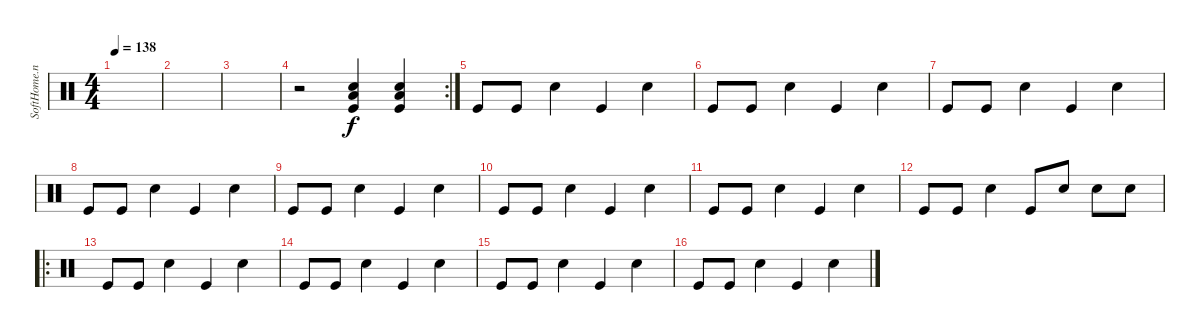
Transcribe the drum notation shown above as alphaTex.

\track ("SoftHome.net" "SoftHome.n") {instrument percussion}
\staff {score}
\articulation defaults
\ts (4 4)
\tempo 138
\clef neutral
\ks c
|
|
|
\rc 2
r.2 ("Low Floor Tom (hit)" "Snare (hit) 2" "Kick (hit)").4 ("Low Floor Tom (hit)" "Snare (hit) 2" "Kick (hit)").4 |
"Kick (hit)".8 "Kick (hit)".8 "Snare (hit) 2".4 "Kick (hit)".4 "Snare (hit) 2".4 |
"Kick (hit)".8 "Kick (hit)".8 "Snare (hit) 2".4 "Kick (hit)".4 "Snare (hit) 2".4 |
"Kick (hit)".8 "Kick (hit)".8 "Snare (hit) 2".4 "Kick (hit)".4 "Snare (hit) 2".4 |
"Kick (hit)".8 "Kick (hit)".8 "Snare (hit) 2".4 "Kick (hit)".4 "Snare (hit) 2".4 |
"Kick (hit)".8 "Kick (hit)".8 "Snare (hit) 2".4 "Kick (hit)".4 "Snare (hit) 2".4 |
"Kick (hit)".8 "Kick (hit)".8 "Snare (hit) 2".4 "Kick (hit)".4 "Snare (hit) 2".4 |
"Kick (hit)".8 "Kick (hit)".8 "Snare (hit) 2".4 "Kick (hit)".4 "Snare (hit) 2".4 |
"Kick (hit)".8 "Kick (hit)".8 "Snare (hit) 2".4 "Kick (hit)".8 "Snare (hit) 2".8 "Snare (hit) 2".8 "Snare (hit) 2".8 |
\ro "Kick (hit)".8 "Kick (hit)".8 "Snare (hit) 2".4 "Kick (hit)".4 "Snare (hit) 2".4
|
"Kick (hit)".8 "Kick (hit)".8 "Snare (hit) 2".4 "Kick (hit)".4 "Snare (hit) 2".4 |
"Kick (hit)".8 "Kick (hit)".8 "Snare (hit) 2".4 "Kick (hit)".4 "Snare (hit) 2".4 |
"Kick (hit)".8 "Kick (hit)".8 "Snare (hit) 2".4 "Kick (hit)".4 "Snare (hit) 2".4
